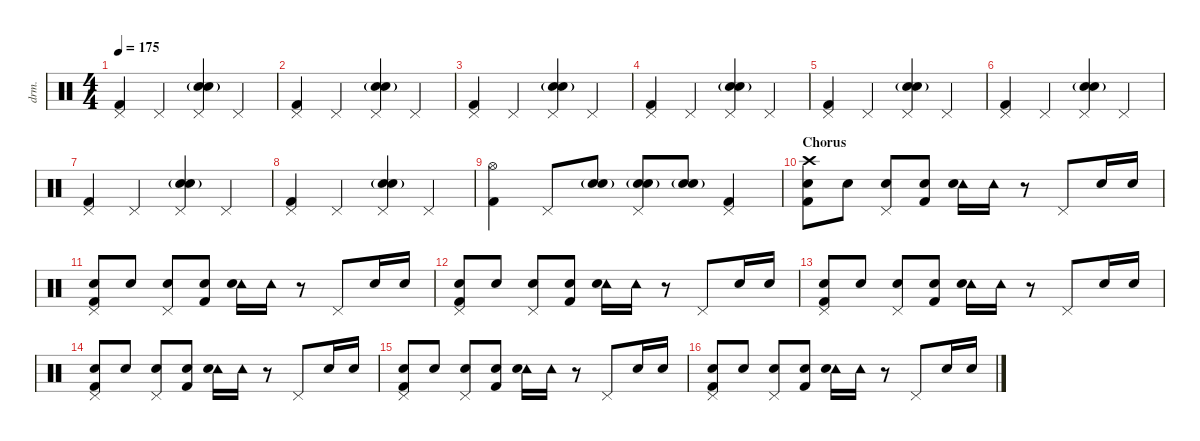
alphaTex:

\defaultSystemsLayout 4
\hideDynamics
\bracketExtendMode nobrackets
\otherSystemsTrackNameOrientation horizontal
\track ("Percussion" "drm.") {instrument percussion}
\staff {score}
\articulation defaults
\ts (4 4)
\tempo 175
\clef neutral
\ks c
("Pedal Hi-Hat (hit)" "Kick (hit) 2").4{dy f} "Pedal Hi-Hat (hit)".4 ("Pedal Hi-Hat (hit)" "Snare (hit) 2" "Snare (hit) 2"{g}).4 "Pedal Hi-Hat (hit)".4 |
("Pedal Hi-Hat (hit)" "Kick (hit) 2").4 "Pedal Hi-Hat (hit)".4 ("Pedal Hi-Hat (hit)" "Snare (hit) 2" "Snare (hit) 2"{g}).4 "Pedal Hi-Hat (hit)".4 |
("Pedal Hi-Hat (hit)" "Kick (hit) 2").4 "Pedal Hi-Hat (hit)".4 ("Pedal Hi-Hat (hit)" "Snare (hit) 2" "Snare (hit) 2"{g}).4 "Pedal Hi-Hat (hit)".4 |
("Pedal Hi-Hat (hit)" "Kick (hit) 2").4 "Pedal Hi-Hat (hit)".4 ("Pedal Hi-Hat (hit)" "Snare (hit) 2" "Snare (hit) 2"{g}).4 "Pedal Hi-Hat (hit)".4 |
("Pedal Hi-Hat (hit)" "Kick (hit) 2").4 "Pedal Hi-Hat (hit)".4 ("Pedal Hi-Hat (hit)" "Snare (hit) 2" "Snare (hit) 2"{g}).4 "Pedal Hi-Hat (hit)".4 |
("Pedal Hi-Hat (hit)" "Kick (hit) 2").4 "Pedal Hi-Hat (hit)".4 ("Pedal Hi-Hat (hit)" "Snare (hit) 2" "Snare (hit) 2"{g}).4 "Pedal Hi-Hat (hit)".4 |
("Pedal Hi-Hat (hit)" "Kick (hit) 2").4 "Pedal Hi-Hat (hit)".4 ("Pedal Hi-Hat (hit)" "Snare (hit) 2" "Snare (hit) 2"{g}).4 "Pedal Hi-Hat (hit)".4 |
("Pedal Hi-Hat (hit)" "Kick (hit) 2").4 "Pedal Hi-Hat (hit)".4 ("Pedal Hi-Hat (hit)" "Snare (hit) 2" "Snare (hit) 2"{g}).4 "Pedal Hi-Hat (hit)".4 |
("Hi-Hat (open)" "Kick (hit) 2").4{dy mf} "Pedal Hi-Hat (hit)".8{dy f} ("Snare (hit) 2" "Snare (hit) 2"{g}).8{dy mp} ("Pedal Hi-Hat (hit)" "Snare (hit) 2" "Snare (hit) 2"{g}).8{dy f} ("Snare (hit) 2" "Snare (hit) 2"{g}).8 ("Pedal Hi-Hat (hit)" "Kick (hit) 2").4 |
\section ("" "Chorus")
("Crash high (hit)" "Snare (hit) 2" "Kick (hit) 2").8 "Snare (hit) 2".8{dy p} ("Pedal Hi-Hat (hit)" "Snare (hit) 2").8{dy f} ("Snare (hit) 2" "Kick (hit) 2").8{dy p} ("Tambourine (hit)" "Snare (hit) 2").16{dy ff} "Tambourine (hit)".16{dy mp} r.8 "Pedal Hi-Hat (hit)".8{dy f} "Snare (hit) 2".16{dy p} "Snare (hit) 2".16 |
("Pedal Hi-Hat (hit)" "Snare (hit) 2" "Kick (hit) 2").8{dy f} "Snare (hit) 2".8{dy p} ("Pedal Hi-Hat (hit)" "Snare (hit) 2").8{dy f} ("Snare (hit) 2" "Kick (hit) 2").8{dy p} ("Tambourine (hit)" "Snare (hit) 2").16{dy ff} "Tambourine (hit)".16{dy mp} r.8 "Pedal Hi-Hat (hit)".8{dy f} "Snare (hit) 2".16{dy p} "Snare (hit) 2".16 |
("Pedal Hi-Hat (hit)" "Snare (hit) 2" "Kick (hit) 2").8{dy f} "Snare (hit) 2".8{dy p} ("Pedal Hi-Hat (hit)" "Snare (hit) 2").8{dy f} ("Snare (hit) 2" "Kick (hit) 2").8{dy p} ("Tambourine (hit)" "Snare (hit) 2").16{dy ff} "Tambourine (hit)".16{dy mp} r.8 "Pedal Hi-Hat (hit)".8{dy f} "Snare (hit) 2".16{dy p} "Snare (hit) 2".16 |
("Pedal Hi-Hat (hit)" "Snare (hit) 2" "Kick (hit) 2").8{dy f} "Snare (hit) 2".8{dy p} ("Pedal Hi-Hat (hit)" "Snare (hit) 2").8{dy f} ("Snare (hit) 2" "Kick (hit) 2").8{dy p} ("Tambourine (hit)" "Snare (hit) 2").16{dy ff} "Tambourine (hit)".16{dy mp} r.8 "Pedal Hi-Hat (hit)".8{dy f} "Snare (hit) 2".16{dy p} "Snare (hit) 2".16 |
("Pedal Hi-Hat (hit)" "Snare (hit) 2" "Kick (hit) 2").8{dy f} "Snare (hit) 2".8{dy p} ("Pedal Hi-Hat (hit)" "Snare (hit) 2").8{dy f} ("Snare (hit) 2" "Kick (hit) 2").8{dy p} ("Tambourine (hit)" "Snare (hit) 2").16{dy ff} "Tambourine (hit)".16{dy mp} r.8 "Pedal Hi-Hat (hit)".8{dy f} "Snare (hit) 2".16{dy p} "Snare (hit) 2".16 |
("Pedal Hi-Hat (hit)" "Snare (hit) 2" "Kick (hit) 2").8{dy f} "Snare (hit) 2".8{dy p} ("Pedal Hi-Hat (hit)" "Snare (hit) 2").8{dy f} ("Snare (hit) 2" "Kick (hit) 2").8{dy p} ("Tambourine (hit)" "Snare (hit) 2").16{dy ff} "Tambourine (hit)".16{dy mp} r.8 "Pedal Hi-Hat (hit)".8{dy f} "Snare (hit) 2".16{dy p} "Snare (hit) 2".16 |
("Pedal Hi-Hat (hit)" "Snare (hit) 2" "Kick (hit) 2").8{dy f} "Snare (hit) 2".8{dy p} ("Pedal Hi-Hat (hit)" "Snare (hit) 2").8{dy f} ("Snare (hit) 2" "Kick (hit) 2").8{dy p} ("Tambourine (hit)" "Snare (hit) 2").16{dy ff} "Tambourine (hit)".16{dy mp} r.8 "Pedal Hi-Hat (hit)".8{dy f} "Snare (hit) 2".16{dy p} "Snare (hit) 2".16
